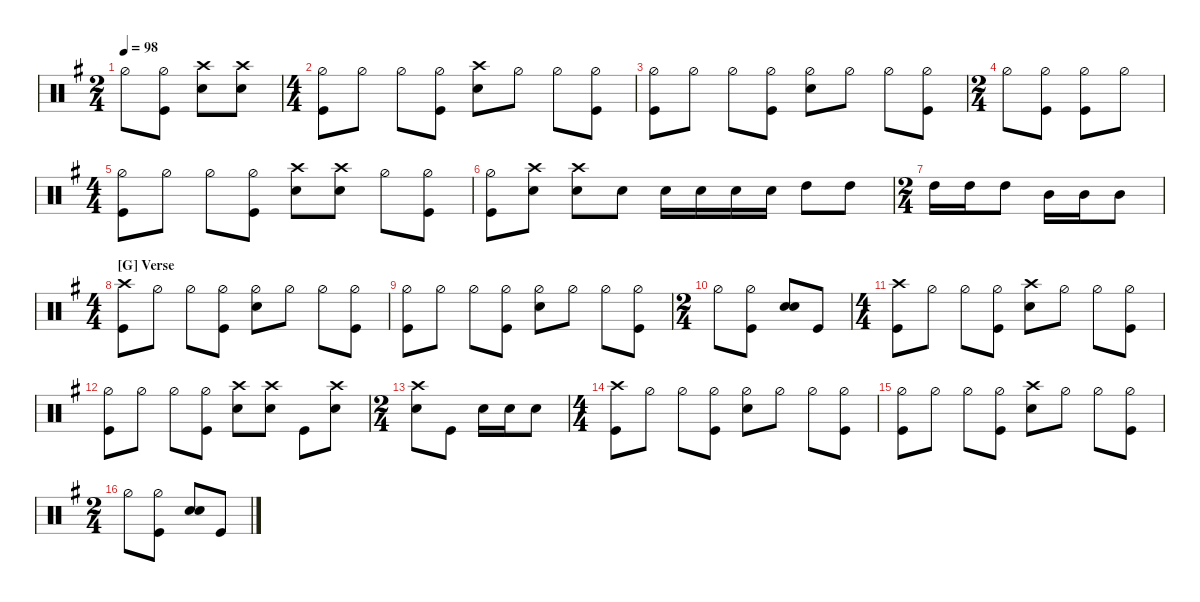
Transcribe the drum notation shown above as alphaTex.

\defaultSystemsLayout 4
\hideDynamics
\bracketExtendMode nobrackets
\otherSystemsTrackNameOrientation horizontal
\track ("Drums" " ") {instrument percussion}
\staff
\articulation defaults
\ts (2 4)
\beaming (8 2 2)
\tempo 98
\clef neutral
\ks eminor "Hi-Hat (half)"{acc forcenatural}.8{dy f}
("Hi-Hat (half)"{acc forcenatural} "Kick (hit)"{acc forcenatural}).8 ("Snare (hit) 2"{acc forcenatural} "Crash high (hit)"{acc forcenatural}).8 ("Snare (hit) 2"{acc forcenatural} "Crash high (hit)"{acc forcenatural}).8 |
\ts (4 4)
\beaming (8 2 2 2 2)
("Kick (hit)"{acc forcenatural} "Hi-Hat (half)"{acc forcenatural}).8 "Hi-Hat (half)"{acc forcenatural}.8 "Hi-Hat (half)"{acc forcenatural}.8 ("Hi-Hat (half)"{acc forcenatural} "Kick (hit)"{acc forcenatural}).8 ("Snare (hit) 2"{acc forcenatural} "Crash high (hit)"{acc forcenatural}).8 "Hi-Hat (half)"{acc forcenatural}.8 "Hi-Hat (half)"{acc forcenatural}.8 ("Hi-Hat (half)"{acc forcenatural} "Kick (hit)"{acc forcenatural}).8 |
("Hi-Hat (half)"{acc forcenatural} "Kick (hit)"{acc forcenatural}).8 "Hi-Hat (half)"{acc forcenatural}.8 "Hi-Hat (half)"{acc forcenatural}.8 ("Hi-Hat (half)"{acc forcenatural} "Kick (hit)"{acc forcenatural}).8 ("Hi-Hat (half)"{acc forcenatural} "Snare (hit) 2"{acc forcenatural}).8 "Hi-Hat (half)"{acc forcenatural}.8 "Hi-Hat (half)"{acc forcenatural}.8 ("Hi-Hat (half)"{acc forcenatural} "Kick (hit)"{acc forcenatural}).8 |
\ts (2 4)
\beaming (8 2 2)
"Hi-Hat (half)"{acc forcenatural}.8 ("Hi-Hat (half)"{acc forcenatural} "Kick (hit)"{acc forcenatural}).8 ("Hi-Hat (half)"{acc forcenatural} "Kick (hit)"{acc forcenatural}).8 "Hi-Hat (half)"{acc forcenatural}.8 |
\ts (4 4)
\beaming (8 2 2 2 2)
("Kick (hit)"{acc forcenatural} "Hi-Hat (half)"{acc forcenatural}).8 "Hi-Hat (half)"{acc forcenatural}.8 "Hi-Hat (half)"{acc forcenatural}.8 ("Hi-Hat (half)"{acc forcenatural} "Kick (hit)"{acc forcenatural}).8 ("Snare (hit) 2"{acc forcenatural} "Crash high (hit)"{acc forcenatural}).8 ("Crash high (hit)"{acc forcenatural} "Snare (hit) 2"{acc forcenatural}).8 "Hi-Hat (half)"{acc forcenatural}.8 ("Hi-Hat (half)"{acc forcenatural} "Kick (hit)"{acc forcenatural}).8 |
("Hi-Hat (half)"{acc forcenatural} "Kick (hit)"{acc forcenatural}).8 ("Snare (hit) 2"{acc forcenatural} "Crash high (hit)"{acc forcenatural}).8 ("Snare (hit) 2"{acc forcenatural} "Crash high (hit)"{acc forcenatural}).8 "Snare (hit) 2"{acc forcenatural}.8 "Snare (hit) 2"{acc forcenatural}.16 "Snare (hit) 2"{acc forcenatural}.16 "Snare (hit) 2"{acc forcenatural}.16 "Snare (hit) 2"{acc forcenatural}.16 "High Tom (hit)"{acc forcenatural}.8{dy ff} "High Tom (hit)"{acc forcenatural}.8 |
\ts (2 4)
\beaming (8 2 2)
"High Tom (hit)"{acc forcenatural}.16 "High Tom (hit)"{acc forcenatural}.16 "High Tom (hit)"{acc forcenatural}.8 "Mid Tom (hit)"{acc forcenatural}.16 "Mid Tom (hit)"{acc forcenatural}.16 "Mid Tom (hit)"{acc forcenatural}.8 |
\ts (4 4)
\beaming (8 2 2 2 2)
\section ("G" "Verse")
("Kick (hit)"{acc forcenatural} "Crash high (hit)"{acc forcenatural}).8{dy f} "Hi-Hat (half)"{acc forcenatural}.8 "Hi-Hat (half)"{acc forcenatural}.8 ("Hi-Hat (half)"{acc forcenatural} "Kick (hit)"{acc forcenatural}).8 ("Hi-Hat (half)"{acc forcenatural} "Snare (hit) 2"{acc forcenatural}).8 "Hi-Hat (half)"{acc forcenatural}.8 "Hi-Hat (half)"{acc forcenatural}.8 ("Hi-Hat (half)"{acc forcenatural} "Kick (hit)"{acc forcenatural}).8 |
("Hi-Hat (half)"{acc forcenatural} "Kick (hit)"{acc forcenatural}).8 "Hi-Hat (half)"{acc forcenatural}.8 "Hi-Hat (half)"{acc forcenatural}.8 ("Hi-Hat (half)"{acc forcenatural} "Kick (hit)"{acc forcenatural}).8 ("Hi-Hat (half)"{acc forcenatural} "Snare (hit) 2"{acc forcenatural}).8 "Hi-Hat (half)"{acc forcenatural}.8 "Hi-Hat (half)"{acc forcenatural}.8 ("Hi-Hat (half)"{acc forcenatural} "Kick (hit)"{acc forcenatural}).8 |
\ts (2 4)
\beaming (8 2 2)
"Hi-Hat (half)"{acc forcenatural}.8 ("Hi-Hat (half)"{acc forcenatural} "Kick (hit)"{acc forcenatural}).8 ("Snare (hit) 2"{acc forcenatural} "Snare (hit) 2"{acc forcenatural}).8 "Kick (hit)"{acc forcenatural}.8 |
\ts (4 4)
\beaming (8 2 2 2 2)
("Kick (hit)"{acc forcenatural} "Crash high (hit)"{acc forcenatural}).8 "Hi-Hat (half)"{acc forcenatural}.8 "Hi-Hat (half)"{acc forcenatural}.8 ("Hi-Hat (half)"{acc forcenatural} "Kick (hit)"{acc forcenatural}).8 ("Snare (hit) 2"{acc forcenatural} "Crash high (hit)"{acc forcenatural}).8 "Hi-Hat (half)"{acc forcenatural}.8 "Hi-Hat (half)"{acc forcenatural}.8 ("Hi-Hat (half)"{acc forcenatural} "Kick (hit)"{acc forcenatural}).8 |
("Hi-Hat (half)"{acc forcenatural} "Kick (hit)"{acc forcenatural}).8 "Hi-Hat (half)"{acc forcenatural}.8 "Hi-Hat (half)"{acc forcenatural}.8 ("Hi-Hat (half)"{acc forcenatural} "Kick (hit)"{acc forcenatural}).8 ("Snare (hit) 2"{acc forcenatural} "Crash high (hit)"{acc forcenatural}).8 ("Snare (hit) 2"{acc forcenatural} "Crash high (hit)"{acc forcenatural}).8 "Kick (hit)"{acc forcenatural}.8 ("Snare (hit) 2"{acc forcenatural} "Crash high (hit)"{acc forcenatural}).8 |
\ts (2 4)
\beaming (8 2 2)
("Snare (hit) 2"{acc forcenatural} "Crash high (hit)"{acc forcenatural}).8 "Kick (hit)"{acc forcenatural}.8 "Snare (hit) 2"{acc forcenatural}.16 "Snare (hit) 2"{acc forcenatural}.16 "Snare (hit) 2"{acc forcenatural}.8 |
\ts (4 4)
\beaming (8 2 2 2 2)
("Kick (hit)"{acc forcenatural} "Crash high (hit)"{acc forcenatural}).8 "Hi-Hat (half)"{acc forcenatural}.8 "Hi-Hat (half)"{acc forcenatural}.8 ("Hi-Hat (half)"{acc forcenatural} "Kick (hit)"{acc forcenatural}).8 ("Hi-Hat (half)"{acc forcenatural} "Snare (hit) 2"{acc forcenatural}).8 "Hi-Hat (half)"{acc forcenatural}.8 "Hi-Hat (half)"{acc forcenatural}.8 ("Hi-Hat (half)"{acc forcenatural} "Kick (hit)"{acc forcenatural}).8 |
("Hi-Hat (half)"{acc forcenatural} "Kick (hit)"{acc forcenatural}).8 "Hi-Hat (half)"{acc forcenatural}.8 "Hi-Hat (half)"{acc forcenatural}.8 ("Hi-Hat (half)"{acc forcenatural} "Kick (hit)"{acc forcenatural}).8 ("Snare (hit) 2"{acc forcenatural} "Crash high (hit)"{acc forcenatural}).8 "Hi-Hat (half)"{acc forcenatural}.8 "Hi-Hat (half)"{acc forcenatural}.8 ("Hi-Hat (half)"{acc forcenatural} "Kick (hit)"{acc forcenatural}).8 |
\ts (2 4)
\beaming (8 2 2)
"Hi-Hat (half)"{acc forcenatural}.8 ("Hi-Hat (half)"{acc forcenatural} "Kick (hit)"{acc forcenatural}).8 ("Snare (hit) 2"{acc forcenatural} "Snare (hit) 2"{acc forcenatural}).8 "Kick (hit)"{acc forcenatural}.8
